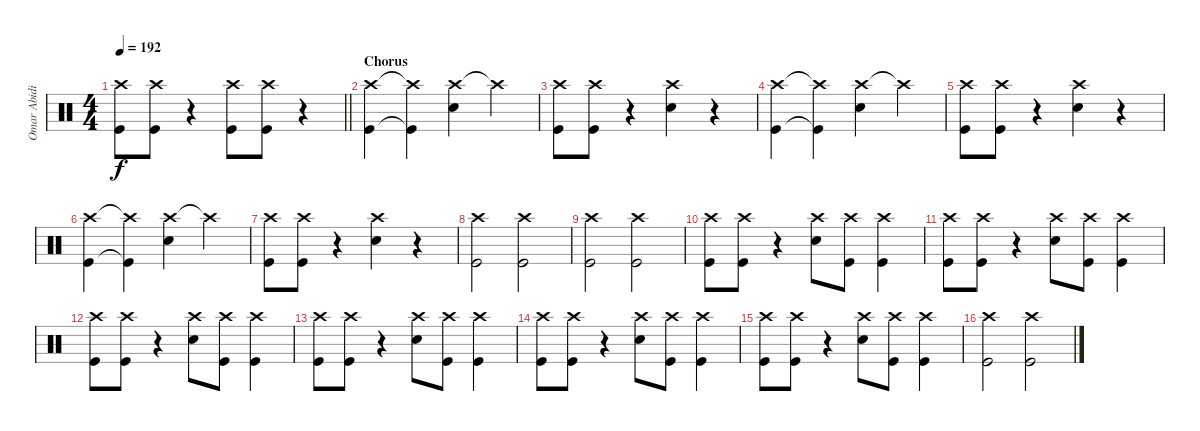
\track ("Omar Abidi" "Omar Abidi") {instrument percussion}
\staff {score}
\articulation defaults
\ts (4 4)
\tempo 192
\clef neutral
\barLineRight lightlight
\ks c
("Crash high (hit)" "Kick (hit)").8{dy f} ("Crash high (hit)" "Kick (hit)").8 r.4 ("Crash high (hit)" "Kick (hit)").8 ("Crash high (hit)" "Kick (hit)").8 r.4 |
\section ("" "Chorus")
("Crash high (hit)" "Kick (hit)").4 ("Crash high (hit)"{t} "Kick (hit)"{t}).4 ("Crash high (hit)" "Snare (hit) 2").4 "Crash high (hit)"{t}.4 |
("Crash high (hit)" "Kick (hit)").8 ("Crash high (hit)" "Kick (hit)").8 r.4 ("Crash high (hit)" "Snare (hit) 2").4 r.4 |
("Crash high (hit)" "Kick (hit)").4 ("Crash high (hit)"{t} "Kick (hit)"{t}).4 ("Crash high (hit)" "Snare (hit) 2").4 "Crash high (hit)"{t}.4 |
("Crash high (hit)" "Kick (hit)").8 ("Crash high (hit)" "Kick (hit)").8 r.4 ("Crash high (hit)" "Snare (hit) 2").4 r.4 |
("Crash high (hit)" "Kick (hit)").4 ("Crash high (hit)"{t} "Kick (hit)"{t}).4 ("Crash high (hit)" "Snare (hit) 2").4 "Crash high (hit)"{t}.4 |
("Crash high (hit)" "Kick (hit)").8 ("Crash high (hit)" "Kick (hit)").8 r.4 ("Crash high (hit)" "Snare (hit) 2").4 r.4 |
("Crash high (hit)" "Kick (hit)").2 ("Crash high (hit)" "Kick (hit)").2 |
("Crash high (hit)" "Kick (hit)").2 ("Crash high (hit)" "Kick (hit)").2 |
("Crash high (hit)" "Kick (hit)").8 ("Crash high (hit)" "Kick (hit)").8 r.4 ("Crash high (hit)" "Snare (hit) 2").8 ("Crash high (hit)" "Kick (hit)").8 ("Crash high (hit)" "Kick (hit)").4 |
("Crash high (hit)" "Kick (hit)").8 ("Crash high (hit)" "Kick (hit)").8 r.4 ("Crash high (hit)" "Snare (hit) 2").8 ("Crash high (hit)" "Kick (hit)").8 ("Crash high (hit)" "Kick (hit)").4 |
("Crash high (hit)" "Kick (hit)").8 ("Crash high (hit)" "Kick (hit)").8 r.4 ("Crash high (hit)" "Snare (hit) 2").8 ("Crash high (hit)" "Kick (hit)").8 ("Crash high (hit)" "Kick (hit)").4 |
("Crash high (hit)" "Kick (hit)").8 ("Crash high (hit)" "Kick (hit)").8 r.4 ("Crash high (hit)" "Snare (hit) 2").8 ("Crash high (hit)" "Kick (hit)").8 ("Crash high (hit)" "Kick (hit)").4 |
("Crash high (hit)" "Kick (hit)").8 ("Crash high (hit)" "Kick (hit)").8 r.4 ("Crash high (hit)" "Snare (hit) 2").8 ("Crash high (hit)" "Kick (hit)").8 ("Crash high (hit)" "Kick (hit)").4 |
("Crash high (hit)" "Kick (hit)").8 ("Crash high (hit)" "Kick (hit)").8 r.4 ("Crash high (hit)" "Snare (hit) 2").8 ("Crash high (hit)" "Kick (hit)").8 ("Crash high (hit)" "Kick (hit)").4 |
("Crash high (hit)" "Kick (hit)").2 ("Crash high (hit)" "Kick (hit)").2
